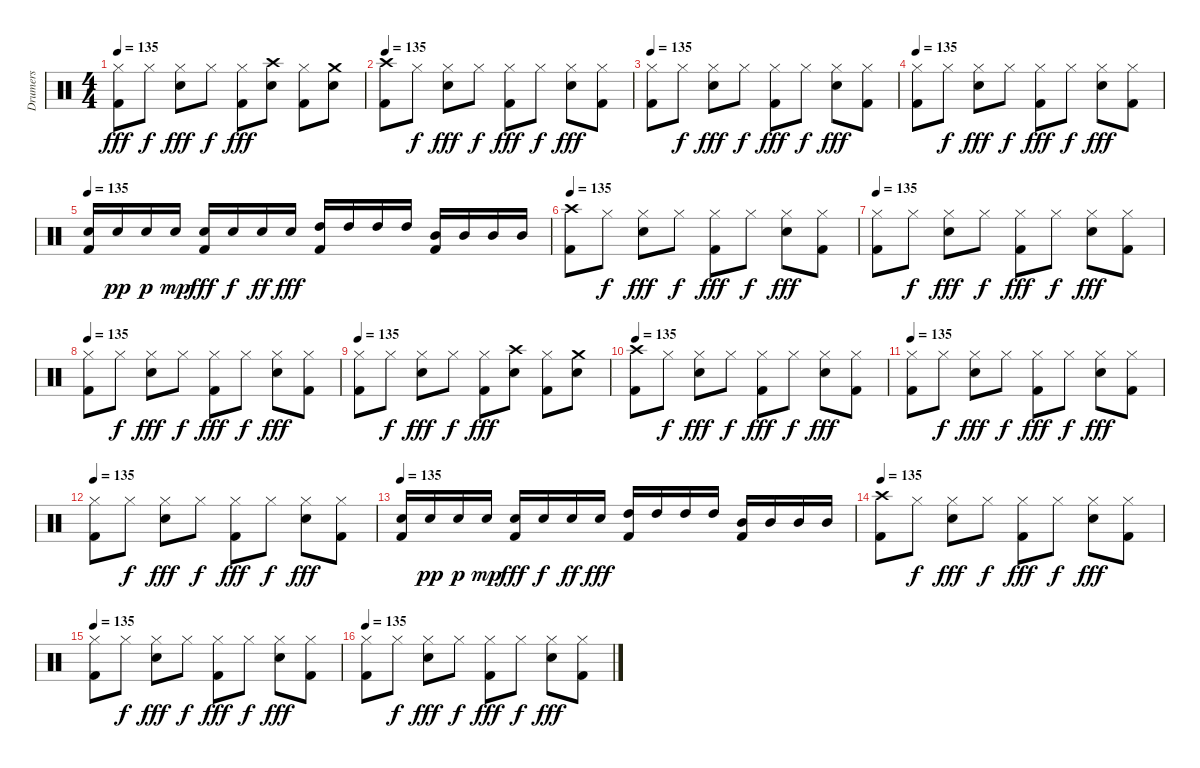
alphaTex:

\track ("Drumers" "Drumers") {instrument percussion}
\staff {score}
\articulation defaults
\ts (4 4)
\tempo 135
\clef neutral
\ks c
("Hi-Hat (closed)" "Kick (hit) 2").8{dy fff} "Hi-Hat (closed)".8{dy f} ("Hi-Hat (closed)" "Electric Snare (hit)").8{dy fff} "Hi-Hat (closed)".8{dy f} ("Hi-Hat (closed)" "Kick (hit) 2").8{dy fff} ("Crash high (hit)" "Electric Snare (hit)").8 ("Hi-Hat (closed)" "Kick (hit) 2").8 ("Crash medium (hit)" "Electric Snare (hit)").8 |
\tempo 135
("Crash high (hit)" "Kick (hit) 2").8 "Hi-Hat (closed)".8{dy f} ("Hi-Hat (closed)" "Electric Snare (hit)").8{dy fff} "Hi-Hat (closed)".8{dy f} ("Hi-Hat (closed)" "Kick (hit) 2").8{dy fff} "Hi-Hat (closed)".8{dy f} ("Hi-Hat (closed)" "Electric Snare (hit)").8{dy fff} ("Hi-Hat (closed)" "Kick (hit) 2").8 |
\tempo 135
("Hi-Hat (closed)" "Kick (hit) 2").8 "Hi-Hat (closed)".8{dy f} ("Hi-Hat (closed)" "Electric Snare (hit)").8{dy fff} "Hi-Hat (closed)".8{dy f} ("Hi-Hat (closed)" "Kick (hit) 2").8{dy fff} "Hi-Hat (closed)".8{dy f} ("Hi-Hat (closed)" "Electric Snare (hit)").8{dy fff} ("Hi-Hat (closed)" "Kick (hit) 2").8 |
\tempo 135
("Hi-Hat (closed)" "Kick (hit) 2").8 "Hi-Hat (closed)".8{dy f} ("Hi-Hat (closed)" "Electric Snare (hit)").8{dy fff} "Hi-Hat (closed)".8{dy f} ("Hi-Hat (closed)" "Kick (hit) 2").8{dy fff} "Hi-Hat (closed)".8{dy f} ("Hi-Hat (closed)" "Electric Snare (hit)").8{dy fff} ("Hi-Hat (closed)" "Kick (hit) 2").8 |
\tempo 135
("Electric Snare (hit)" "Kick (hit) 2").16 "Electric Snare (hit)".16{dy pp} "Electric Snare (hit)".16{dy p} "Electric Snare (hit)".16{dy mp} ("Electric Snare (hit)" "Kick (hit) 2").16{dy fff} "Electric Snare (hit)".16{dy f} "Electric Snare (hit)".16{dy ff} "Electric Snare (hit)".16{dy fff} ("High Tom (hit)" "Kick (hit) 2").16 "High Tom (hit)".16 "High Tom (hit)".16 "High Tom (hit)".16 ("Mid Tom (hit)" "Kick (hit) 2").16 "Mid Tom (hit)".16 "Mid Tom (hit)".16 "Mid Tom (hit)".16 |
\tempo 135
("Crash high (hit)" "Kick (hit) 2").8 "Hi-Hat (closed)".8{dy f} ("Hi-Hat (closed)" "Electric Snare (hit)").8{dy fff} "Hi-Hat (closed)".8{dy f} ("Hi-Hat (closed)" "Kick (hit) 2").8{dy fff} "Hi-Hat (closed)".8{dy f} ("Hi-Hat (closed)" "Electric Snare (hit)").8{dy fff} ("Hi-Hat (closed)" "Kick (hit) 2").8 |
\tempo 135
("Hi-Hat (closed)" "Kick (hit) 2").8 "Hi-Hat (closed)".8{dy f} ("Hi-Hat (closed)" "Electric Snare (hit)").8{dy fff} "Hi-Hat (closed)".8{dy f} ("Hi-Hat (closed)" "Kick (hit) 2").8{dy fff} "Hi-Hat (closed)".8{dy f} ("Hi-Hat (closed)" "Electric Snare (hit)").8{dy fff} ("Hi-Hat (closed)" "Kick (hit) 2").8 |
\tempo 135
("Hi-Hat (closed)" "Kick (hit) 2").8 "Hi-Hat (closed)".8{dy f} ("Hi-Hat (closed)" "Electric Snare (hit)").8{dy fff} "Hi-Hat (closed)".8{dy f} ("Hi-Hat (closed)" "Kick (hit) 2").8{dy fff} "Hi-Hat (closed)".8{dy f} ("Hi-Hat (closed)" "Electric Snare (hit)").8{dy fff} ("Hi-Hat (closed)" "Kick (hit) 2").8 |
\tempo 135
("Hi-Hat (closed)" "Kick (hit) 2").8 "Hi-Hat (closed)".8{dy f} ("Hi-Hat (closed)" "Electric Snare (hit)").8{dy fff} "Hi-Hat (closed)".8{dy f} ("Hi-Hat (closed)" "Kick (hit) 2").8{dy fff} ("Crash high (hit)" "Electric Snare (hit)").8 ("Hi-Hat (closed)" "Kick (hit) 2").8 ("Crash medium (hit)" "Electric Snare (hit)").8 |
\tempo 135
("Crash high (hit)" "Kick (hit) 2").8 "Hi-Hat (closed)".8{dy f} ("Hi-Hat (closed)" "Electric Snare (hit)").8{dy fff} "Hi-Hat (closed)".8{dy f} ("Hi-Hat (closed)" "Kick (hit) 2").8{dy fff} "Hi-Hat (closed)".8{dy f} ("Hi-Hat (closed)" "Electric Snare (hit)").8{dy fff} ("Hi-Hat (closed)" "Kick (hit) 2").8 |
\tempo 135
("Hi-Hat (closed)" "Kick (hit) 2").8 "Hi-Hat (closed)".8{dy f} ("Hi-Hat (closed)" "Electric Snare (hit)").8{dy fff} "Hi-Hat (closed)".8{dy f} ("Hi-Hat (closed)" "Kick (hit) 2").8{dy fff} "Hi-Hat (closed)".8{dy f} ("Hi-Hat (closed)" "Electric Snare (hit)").8{dy fff} ("Hi-Hat (closed)" "Kick (hit) 2").8 |
\tempo 135
("Hi-Hat (closed)" "Kick (hit) 2").8 "Hi-Hat (closed)".8{dy f} ("Hi-Hat (closed)" "Electric Snare (hit)").8{dy fff} "Hi-Hat (closed)".8{dy f} ("Hi-Hat (closed)" "Kick (hit) 2").8{dy fff} "Hi-Hat (closed)".8{dy f} ("Hi-Hat (closed)" "Electric Snare (hit)").8{dy fff} ("Hi-Hat (closed)" "Kick (hit) 2").8 |
\tempo 135
("Electric Snare (hit)" "Kick (hit) 2").16 "Electric Snare (hit)".16{dy pp} "Electric Snare (hit)".16{dy p} "Electric Snare (hit)".16{dy mp} ("Electric Snare (hit)" "Kick (hit) 2").16{dy fff} "Electric Snare (hit)".16{dy f} "Electric Snare (hit)".16{dy ff} "Electric Snare (hit)".16{dy fff} ("High Tom (hit)" "Kick (hit) 2").16 "High Tom (hit)".16 "High Tom (hit)".16 "High Tom (hit)".16 ("Mid Tom (hit)" "Kick (hit) 2").16 "Mid Tom (hit)".16 "Mid Tom (hit)".16 "Mid Tom (hit)".16 |
\tempo 135
("Crash high (hit)" "Kick (hit) 2").8 "Hi-Hat (closed)".8{dy f} ("Hi-Hat (closed)" "Electric Snare (hit)").8{dy fff} "Hi-Hat (closed)".8{dy f} ("Hi-Hat (closed)" "Kick (hit) 2").8{dy fff} "Hi-Hat (closed)".8{dy f} ("Hi-Hat (closed)" "Electric Snare (hit)").8{dy fff} ("Hi-Hat (closed)" "Kick (hit) 2").8 |
\tempo 135
("Hi-Hat (closed)" "Kick (hit) 2").8 "Hi-Hat (closed)".8{dy f} ("Hi-Hat (closed)" "Electric Snare (hit)").8{dy fff} "Hi-Hat (closed)".8{dy f} ("Hi-Hat (closed)" "Kick (hit) 2").8{dy fff} "Hi-Hat (closed)".8{dy f} ("Hi-Hat (closed)" "Electric Snare (hit)").8{dy fff} ("Hi-Hat (closed)" "Kick (hit) 2").8 |
\tempo 135
("Hi-Hat (closed)" "Kick (hit) 2").8 "Hi-Hat (closed)".8{dy f} ("Hi-Hat (closed)" "Electric Snare (hit)").8{dy fff} "Hi-Hat (closed)".8{dy f} ("Hi-Hat (closed)" "Kick (hit) 2").8{dy fff} "Hi-Hat (closed)".8{dy f} ("Hi-Hat (closed)" "Electric Snare (hit)").8{dy fff} ("Hi-Hat (closed)" "Kick (hit) 2").8
